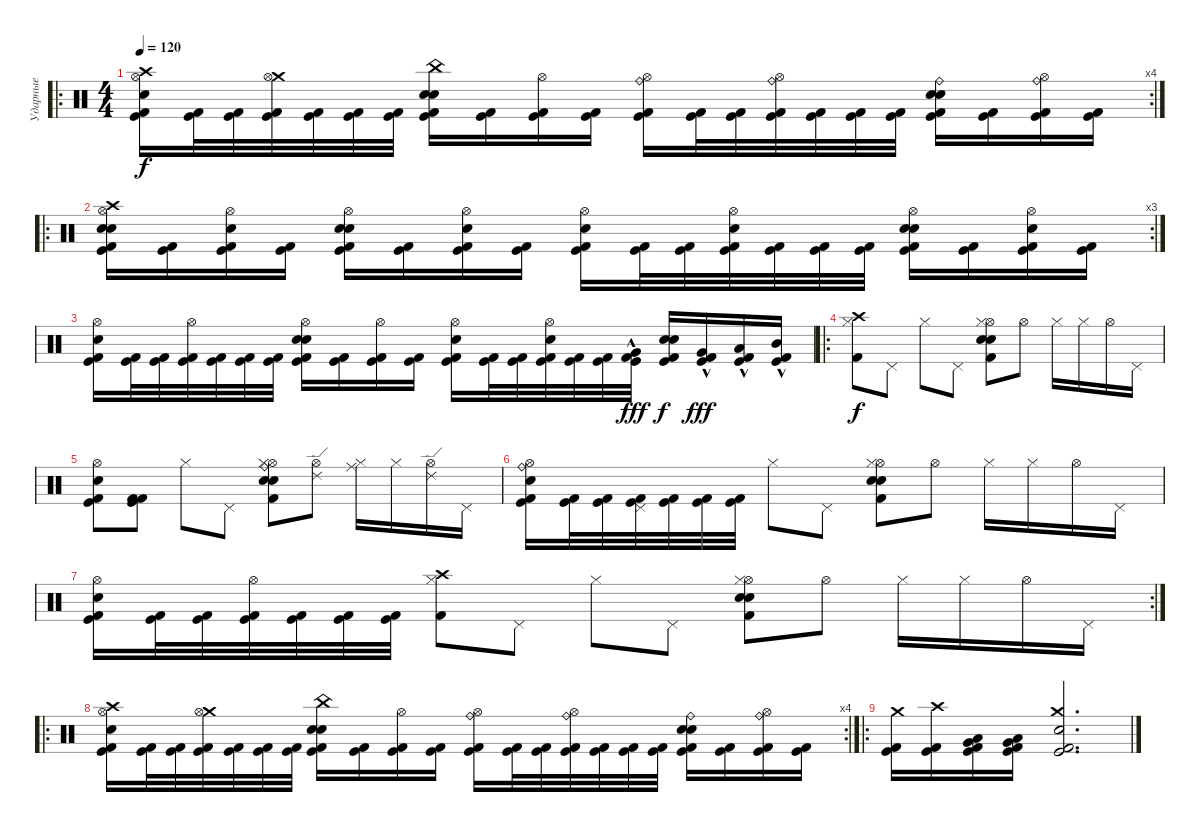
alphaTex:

\track ("Ударные" "Ударные") {instrument percussion}
\staff {score}
\articulation defaults
\ro
\rc 4
\ts (4 4)
\tempo 120
\clef neutral
\ks c
("Crash high (hit)" "Hi-Hat (open)" "Kick (hit)" "Snare (hit)" "Kick (hit) 2").16{dy f} ("Kick (hit)" "Kick (hit) 2").32 ("Kick (hit)" "Kick (hit) 2").32 ("Crash medium (hit)" "Hi-Hat (open)" "Kick (hit)" "Kick (hit) 2").32 ("Kick (hit)" "Kick (hit) 2").32 ("Kick (hit)" "Kick (hit) 2").32 ("Kick (hit)" "Kick (hit) 2").32 ("China (hit)" "Electric Snare (hit)" "Snare (hit) 2" "Kick (hit)" "Kick (hit) 2").16 ("Kick (hit)" "Kick (hit) 2").16 ("Hi-Hat (open)" "Kick (hit)" "Kick (hit) 2").16 ("Kick (hit)" "Kick (hit) 2").16 ("Ride (bell)" "Hi-Hat (open)" "Kick (hit)" "Kick (hit) 2").16 ("Kick (hit)" "Kick (hit) 2").32 ("Kick (hit)" "Kick (hit) 2").32 ("Ride (bell)" "Hi-Hat (open)" "Kick (hit)" "Kick (hit) 2").32 ("Kick (hit)" "Kick (hit) 2").32 ("Kick (hit)" "Kick (hit) 2").32 ("Kick (hit)" "Kick (hit) 2").32 ("Ride (bell)" "Electric Snare (hit)" "Snare (hit) 2" "Kick (hit)" "Kick (hit) 2").16 ("Kick (hit)" "Kick (hit) 2").16 ("Ride (bell)" "Hi-Hat (open)" "Kick (hit)" "Kick (hit) 2").16 ("Kick (hit)" "Kick (hit) 2").16 |
\ro
\rc 3
("Crash high (hit)" "Electric Snare (hit)" "Hi-Hat (open)" "Kick (hit)" "Snare (hit)" "Kick (hit) 2").16 ("Kick (hit)" "Kick (hit) 2").16 ("Hi-Hat (open)" "Electric Snare (hit)" "Kick (hit)" "Kick (hit) 2").16 ("Kick (hit)" "Kick (hit) 2").16 ("Hi-Hat (open)" "Electric Snare (hit)" "Snare (hit) 2" "Kick (hit)" "Kick (hit) 2").16 ("Kick (hit)" "Kick (hit) 2").16 ("Electric Snare (hit)" "Hi-Hat (open)" "Kick (hit)" "Kick (hit) 2").16 ("Kick (hit)" "Kick (hit) 2").16 ("Electric Snare (hit)" "Hi-Hat (open)" "Kick (hit)" "Kick (hit) 2").16 ("Kick (hit)" "Kick (hit) 2").32 ("Kick (hit)" "Kick (hit) 2").32 ("Electric Snare (hit)" "Hi-Hat (open)" "Kick (hit)" "Kick (hit) 2").32 ("Kick (hit)" "Kick (hit) 2").32 ("Kick (hit)" "Kick (hit) 2").32 ("Kick (hit)" "Kick (hit) 2").32 ("Hi-Hat (open)" "Electric Snare (hit)" "Snare (hit) 2" "Kick (hit)" "Kick (hit) 2").16 ("Kick (hit)" "Kick (hit) 2").16 ("Electric Snare (hit)" "Hi-Hat (open)" "Kick (hit)" "Kick (hit) 2").16 ("Kick (hit)" "Kick (hit) 2").16 |
("Hi-Hat (open)" "Kick (hit)" "Snare (hit)" "Kick (hit) 2").16 ("Kick (hit)" "Kick (hit) 2").32 ("Kick (hit)" "Kick (hit) 2").32 ("Hi-Hat (open)" "Kick (hit)" "Kick (hit) 2").32 ("Kick (hit)" "Kick (hit) 2").32 ("Kick (hit)" "Kick (hit) 2").32 ("Kick (hit)" "Kick (hit) 2").32 ("Hi-Hat (open)" "Electric Snare (hit)" "Snare (hit) 2" "Kick (hit)" "Kick (hit) 2").16 ("Kick (hit)" "Kick (hit) 2").16 ("Hi-Hat (open)" "Kick (hit)" "Kick (hit) 2").16 ("Kick (hit)" "Kick (hit) 2").16 ("Electric Snare (hit)" "Hi-Hat (open)" "Kick (hit)" "Kick (hit) 2").16 ("Kick (hit)" "Kick (hit) 2").32 ("Kick (hit)" "Kick (hit) 2").32 ("Electric Snare (hit)" "Hi-Hat (open)" "Kick (hit)" "Kick (hit) 2").32 ("Kick (hit)" "Kick (hit) 2").32 ("Kick (hit)" "Kick (hit) 2").32 ("Very Low Tom (hit)"{hac} "Kick (hit)" "Kick (hit) 2").32{dy fff} ("Electric Snare (hit)" "Snare (hit) 2" "Kick (hit)" "Kick (hit) 2").16{dy f} ("Very Low Tom (hit)"{hac} "Kick (hit)" "Kick (hit) 2").16{dy fff} ("Low Tom (hit)"{hac} "Kick (hit)" "Kick (hit) 2").16 ("Mid Tom (hit)"{hac} "Kick (hit)" "Kick (hit) 2").16 |
\ro
("Crash high (hit)" "Hi-Hat (closed)" "Kick (hit) 2").8{dy f} "Pedal Hi-Hat (hit)".8 "Hi-Hat (closed)".8 "Pedal Hi-Hat (hit)".8 ("Hi-Hat (open)" "Snare (hit) 2" "Electric Snare (hit)" "Hi-Hat (closed)" "Kick (hit) 2").8 "Hi-Hat (open)".8 "Hi-Hat (closed)".16 "Hi-Hat (closed)".16 "Hi-Hat (open)".16 "Pedal Hi-Hat (hit)".16 |
("Hi-Hat (open)" "Kick (hit)" "Snare (hit)" "Kick (hit) 2").8 ("Kick (hit) 2" "Kick (hit)" "Kick (hit) 2").8 "Hi-Hat (closed)".8 "Pedal Hi-Hat (hit)".8 ("Ride (bell)" "Hi-Hat (open)" "Snare (hit) 2" "Electric Snare (hit)" "Hi-Hat (closed)" "Kick (hit) 2").8 ("Ride (edge) 2" "Hi-Hat (open)").8 ("Ride (middle)" "Hi-Hat (closed)").16 "Hi-Hat (closed)".16 ("Ride (edge) 2" "Hi-Hat (open)").16 "Pedal Hi-Hat (hit)".16 |
("Ride (bell)" "Hi-Hat (open)" "Kick (hit)" "Snare (hit)" "Kick (hit) 2").16 ("Kick (hit)" "Kick (hit) 2").32 ("Kick (hit)" "Kick (hit) 2").32 ("Pedal Hi-Hat (hit)" "Kick (hit)" "Kick (hit) 2").32 ("Kick (hit)" "Kick (hit) 2").32 ("Kick (hit)" "Kick (hit) 2").32 ("Kick (hit)" "Kick (hit) 2").32 "Hi-Hat (closed)".8 "Pedal Hi-Hat (hit)".8 ("Hi-Hat (open)" "Snare (hit) 2" "Electric Snare (hit)" "Hi-Hat (closed)" "Kick (hit) 2").8 "Hi-Hat (open)".8 "Hi-Hat (closed)".16 "Hi-Hat (closed)".16 "Hi-Hat (open)".16 "Pedal Hi-Hat (hit)".16 |
\rc 2
("Hi-Hat (open)" "Kick (hit)" "Snare (hit)" "Kick (hit) 2").16 ("Kick (hit)" "Kick (hit) 2").32 ("Kick (hit)" "Kick (hit) 2").32 ("Hi-Hat (open)" "Kick (hit)" "Kick (hit) 2").32 ("Kick (hit)" "Kick (hit) 2").32 ("Kick (hit)" "Kick (hit) 2").32 ("Kick (hit)" "Kick (hit) 2").32 ("Crash high (hit)" "Hi-Hat (closed)" "Kick (hit) 2").8 "Pedal Hi-Hat (hit)".8 "Hi-Hat (closed)".8 "Pedal Hi-Hat (hit)".8 ("Hi-Hat (open)" "Snare (hit) 2" "Electric Snare (hit)" "Hi-Hat (closed)" "Kick (hit) 2").8 "Hi-Hat (open)".8 "Hi-Hat (closed)".16 "Hi-Hat (closed)".16 "Hi-Hat (open)".16 "Pedal Hi-Hat (hit)".16 |
\ro
\rc 4
("Crash high (hit)" "Hi-Hat (open)" "Kick (hit)" "Snare (hit)" "Kick (hit) 2").16 ("Kick (hit)" "Kick (hit) 2").32 ("Kick (hit)" "Kick (hit) 2").32 ("Crash medium (hit)" "Hi-Hat (open)" "Kick (hit)" "Kick (hit) 2").32 ("Kick (hit)" "Kick (hit) 2").32 ("Kick (hit)" "Kick (hit) 2").32 ("Kick (hit)" "Kick (hit) 2").32 ("China (hit)" "Electric Snare (hit)" "Snare (hit) 2" "Kick (hit)" "Kick (hit) 2").16 ("Kick (hit)" "Kick (hit) 2").16 ("Hi-Hat (open)" "Kick (hit)" "Kick (hit) 2").16 ("Kick (hit)" "Kick (hit) 2").16 ("Ride (bell)" "Hi-Hat (open)" "Kick (hit)" "Kick (hit) 2").16 ("Kick (hit)" "Kick (hit) 2").32 ("Kick (hit)" "Kick (hit) 2").32 ("Ride (bell)" "Hi-Hat (open)" "Kick (hit)" "Kick (hit) 2").32 ("Kick (hit)" "Kick (hit) 2").32 ("Kick (hit)" "Kick (hit) 2").32 ("Kick (hit)" "Kick (hit) 2").32 ("Ride (bell)" "Electric Snare (hit)" "Snare (hit) 2" "Kick (hit)" "Kick (hit) 2").16 ("Kick (hit)" "Kick (hit) 2").16 ("Ride (bell)" "Hi-Hat (open)" "Kick (hit)" "Kick (hit) 2").16 ("Kick (hit)" "Kick (hit) 2").16 |
\ro
("Crash medium (hit)" "Kick (hit)" "Kick (hit) 2").16 ("Crash high (hit)" "Kick (hit)" "Kick (hit) 2").16 ("Low Floor Tom (hit)" "Very Low Tom (hit)" "Kick (hit)" "Kick (hit) 2").16 ("Low Tom (hit)" "Very Low Tom (hit)" "Kick (hit)" "Kick (hit) 2").16 ("Crash medium (hit)" "Electric Snare (hit)" "Kick (hit)" "Kick (hit) 2").2{d}
